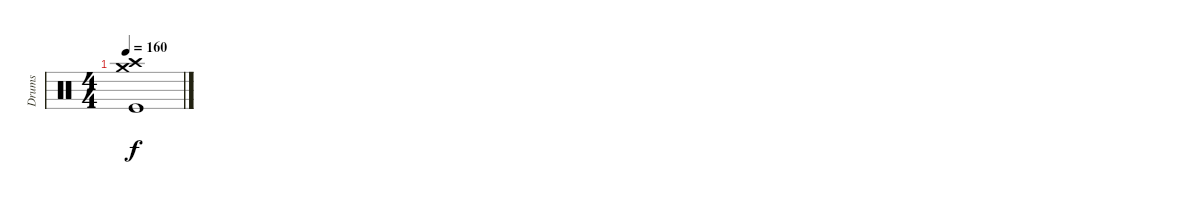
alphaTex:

\track ("Drums" "Drums") {instrument percussion}
\staff {score}
\articulation defaults
\ts (4 4)
\tempo 160
\clef neutral
\ks c
("Crash high (hit)" "Crash medium (hit)" "Kick (hit)").1{dy f}
